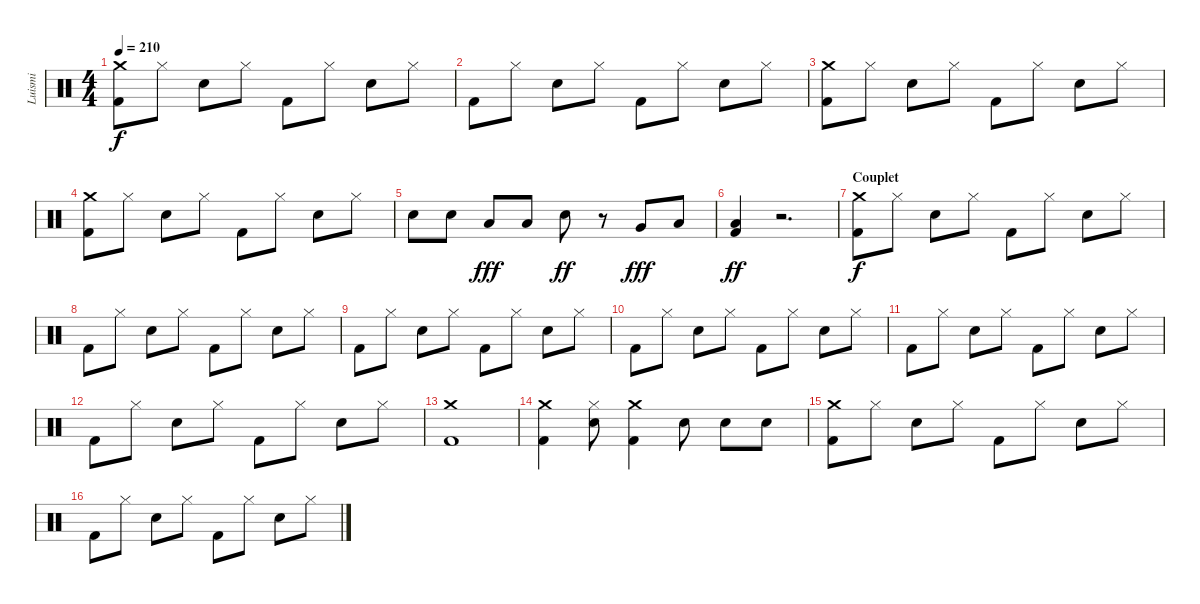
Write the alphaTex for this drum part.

\track ("Luismi" "Luismi") {instrument percussion}
\staff {score}
\articulation defaults
\ts (4 4)
\tempo 210
\clef neutral
\ks c
("Crash medium (hit)" "Kick (hit) 2").8{dy f} "Hi-Hat (closed)".8 "Snare (hit) 2".8 "Hi-Hat (closed)".8 "Kick (hit) 2".8 "Hi-Hat (closed)".8 "Snare (hit) 2".8 "Hi-Hat (closed)".8 |
"Kick (hit) 2".8 "Hi-Hat (closed)".8 "Snare (hit) 2".8 "Hi-Hat (closed)".8 "Kick (hit) 2".8 "Hi-Hat (closed)".8 "Snare (hit) 2".8 "Hi-Hat (closed)".8 |
("Crash medium (hit)" "Kick (hit) 2").8 "Hi-Hat (closed)".8 "Snare (hit) 2".8 "Hi-Hat (closed)".8 "Kick (hit) 2".8 "Hi-Hat (closed)".8 "Snare (hit) 2".8 "Hi-Hat (closed)".8 |
("Crash medium (hit)" "Kick (hit) 2").8 "Hi-Hat (closed)".8 "Snare (hit) 2".8 "Hi-Hat (closed)".8 "Kick (hit) 2".8 "Hi-Hat (closed)".8 "Snare (hit) 2".8 "Hi-Hat (closed)".8 |
"Snare (hit) 2".8 "Snare (hit) 2".8 "Low Tom (hit)".8{dy fff} "Low Tom (hit)".8 "Snare (hit) 2".8{dy ff} r.8 "Very Low Tom (hit)".8{dy fff} "Low Floor Tom (hit)".8 |
("Low Floor Tom (hit)" "Kick (hit) 2").4{dy ff} r.2{d} |
\section ("" "Couplet")
("Crash medium (hit)" "Kick (hit) 2").8{dy f} "Hi-Hat (closed)".8 "Snare (hit) 2".8 "Hi-Hat (closed)".8 "Kick (hit) 2".8 "Hi-Hat (closed)".8 "Snare (hit) 2".8 "Hi-Hat (closed)".8 |
"Kick (hit) 2".8 "Hi-Hat (closed)".8 "Snare (hit) 2".8 "Hi-Hat (closed)".8 "Kick (hit) 2".8 "Hi-Hat (closed)".8 "Snare (hit) 2".8 "Hi-Hat (closed)".8 |
"Kick (hit) 2".8 "Hi-Hat (closed)".8 "Snare (hit) 2".8 "Hi-Hat (closed)".8 "Kick (hit) 2".8 "Hi-Hat (closed)".8 "Snare (hit) 2".8 "Hi-Hat (closed)".8 |
"Kick (hit) 2".8 "Hi-Hat (closed)".8 "Snare (hit) 2".8 "Hi-Hat (closed)".8 "Kick (hit) 2".8 "Hi-Hat (closed)".8 "Snare (hit) 2".8 "Hi-Hat (closed)".8 |
"Kick (hit) 2".8 "Hi-Hat (closed)".8 "Snare (hit) 2".8 "Hi-Hat (closed)".8 "Kick (hit) 2".8 "Hi-Hat (closed)".8 "Snare (hit) 2".8 "Hi-Hat (closed)".8 |
"Kick (hit) 2".8 "Hi-Hat (closed)".8 "Snare (hit) 2".8 "Hi-Hat (closed)".8 "Kick (hit) 2".8 "Hi-Hat (closed)".8 "Snare (hit) 2".8 "Hi-Hat (closed)".8 |
("Crash medium (hit)" "Kick (hit) 2").1 |
("Crash medium (hit)" "Kick (hit) 2").4 ("Hi-Hat (closed)" "Snare (hit) 2").8 ("Crash medium (hit)" "Kick (hit) 2").4 "Snare (hit) 2".8 "Snare (hit) 2".8 "Snare (hit) 2".8 |
("Crash medium (hit)" "Kick (hit) 2").8 "Hi-Hat (closed)".8 "Snare (hit) 2".8 "Hi-Hat (closed)".8 "Kick (hit) 2".8 "Hi-Hat (closed)".8 "Snare (hit) 2".8 "Hi-Hat (closed)".8 |
"Kick (hit) 2".8 "Hi-Hat (closed)".8 "Snare (hit) 2".8 "Hi-Hat (closed)".8 "Kick (hit) 2".8 "Hi-Hat (closed)".8 "Snare (hit) 2".8 "Hi-Hat (closed)".8
